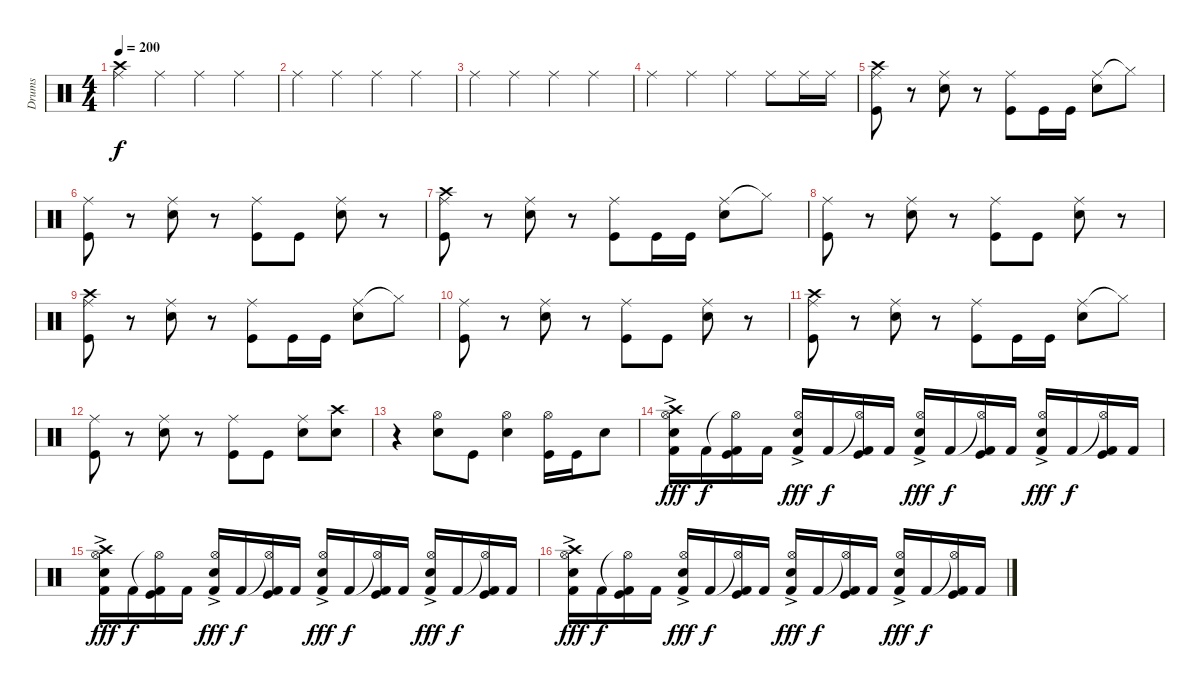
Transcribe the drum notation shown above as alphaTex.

\track ("Drums" "Drums") {instrument percussion}
\staff {score}
\articulation defaults
\ts (4 4)
\tempo 200
\clef neutral
\ks c
("Crash high (hit)" "Ride (middle)").4{dy f} "Ride (middle)".4 "Ride (middle)".4 "Ride (middle)".4 |
"Ride (middle)".4 "Ride (middle)".4 "Ride (middle)".4 "Ride (middle)".4 |
"Ride (middle)".4 "Ride (middle)".4 "Ride (middle)".4 "Ride (middle)".4 |
"Ride (middle)".4 "Ride (middle)".4 "Ride (middle)".4 "Ride (middle)".8 "Ride (middle)".16 "Ride (middle)".16 |
("Crash high (hit)" "Ride (middle)" "Kick (hit)").8 r.8 ("Ride (middle)" "Snare (hit) 2").8 r.8 ("Ride (middle)" "Kick (hit)").8 "Kick (hit)".16 "Kick (hit)".16 ("Ride (middle)" "Snare (hit) 2").8 "Hi-Hat (closed)"{t}.8 |
("Ride (middle)" "Kick (hit)").8 r.8 ("Ride (middle)" "Snare (hit) 2").8 r.8 ("Ride (middle)" "Kick (hit)").8 "Kick (hit)".8 ("Ride (middle)" "Snare (hit) 2").8 r.8 |
("Crash high (hit)" "Ride (middle)" "Kick (hit)").8 r.8 ("Ride (middle)" "Snare (hit) 2").8 r.8 ("Ride (middle)" "Kick (hit)").8 "Kick (hit)".16 "Kick (hit)".16 ("Ride (middle)" "Snare (hit) 2").8 "Hi-Hat (closed)"{t}.8 |
("Ride (middle)" "Kick (hit)").8 r.8 ("Ride (middle)" "Snare (hit) 2").8 r.8 ("Ride (middle)" "Kick (hit)").8 "Kick (hit)".8 ("Ride (middle)" "Snare (hit) 2").8 r.8 |
("Crash high (hit)" "Ride (middle)" "Kick (hit)").8 r.8 ("Ride (middle)" "Snare (hit) 2").8 r.8 ("Ride (middle)" "Kick (hit)").8 "Kick (hit)".16 "Kick (hit)".16 ("Ride (middle)" "Snare (hit) 2").8 "Hi-Hat (closed)"{t}.8 |
("Ride (middle)" "Kick (hit)").8 r.8 ("Ride (middle)" "Snare (hit) 2").8 r.8 ("Ride (middle)" "Kick (hit)").8 "Kick (hit)".8 ("Ride (middle)" "Snare (hit) 2").8 r.8 |
("Crash high (hit)" "Ride (middle)" "Kick (hit)").8 r.8 ("Ride (middle)" "Snare (hit) 2").8 r.8 ("Ride (middle)" "Kick (hit)").8 "Kick (hit)".16 "Kick (hit)".16 ("Ride (middle)" "Snare (hit) 2").8 "Hi-Hat (closed)"{t}.8 |
("Ride (middle)" "Kick (hit)").8 r.8 ("Ride (middle)" "Snare (hit) 2").8 r.8 ("Ride (middle)" "Kick (hit)").8 "Kick (hit)".8 ("Ride (middle)" "Snare (hit) 2").8 ("Crash high (hit)" "Snare (hit) 2").8 |
r.4 ("Hi-Hat (open)" "Snare (hit) 2").8 "Kick (hit)".8 ("Hi-Hat (open)" "Snare (hit) 2").4 ("Hi-Hat (open)" "Kick (hit)").16 "Kick (hit)".16 "Snare (hit) 2".8 |
("Crash high (hit)"{ac} "Hi-Hat (open)"{ac} "Snare (hit) 2" "Kick (hit) 2").16{dy fff} "Kick (hit) 2".16{dy f} ("Hi-Hat (open)"{t} "Kick (hit)" "Kick (hit) 2").16 "Kick (hit) 2".16 ("Hi-Hat (open)"{ac} "Snare (hit) 2" "Kick (hit) 2").16{dy fff} "Kick (hit) 2".16{dy f} ("Hi-Hat (open)"{t} "Kick (hit)" "Kick (hit) 2").16 "Kick (hit) 2".16 ("Hi-Hat (open)"{ac} "Snare (hit) 2" "Kick (hit) 2").16{dy fff} "Kick (hit) 2".16{dy f} ("Hi-Hat (open)"{t} "Kick (hit)" "Kick (hit) 2").16 "Kick (hit) 2".16 ("Hi-Hat (open)"{ac} "Snare (hit) 2" "Kick (hit) 2").16{dy fff} "Kick (hit) 2".16{dy f} ("Hi-Hat (open)"{t} "Kick (hit)" "Kick (hit) 2").16 "Kick (hit) 2".16 |
("Crash high (hit)"{ac} "Hi-Hat (open)"{ac} "Snare (hit) 2" "Kick (hit) 2").16{dy fff} "Kick (hit) 2".16{dy f} ("Hi-Hat (open)"{t} "Kick (hit)" "Kick (hit) 2").16 "Kick (hit) 2".16 ("Hi-Hat (open)"{ac} "Snare (hit) 2" "Kick (hit) 2").16{dy fff} "Kick (hit) 2".16{dy f} ("Hi-Hat (open)"{t} "Kick (hit)" "Kick (hit) 2").16 "Kick (hit) 2".16 ("Hi-Hat (open)"{ac} "Snare (hit) 2" "Kick (hit) 2").16{dy fff} "Kick (hit) 2".16{dy f} ("Hi-Hat (open)"{t} "Kick (hit)" "Kick (hit) 2").16 "Kick (hit) 2".16 ("Hi-Hat (open)"{ac} "Snare (hit) 2" "Kick (hit) 2").16{dy fff} "Kick (hit) 2".16{dy f} ("Hi-Hat (open)"{t} "Kick (hit)" "Kick (hit) 2").16 "Kick (hit) 2".16 |
("Crash high (hit)"{ac} "Hi-Hat (open)"{ac} "Snare (hit) 2" "Kick (hit) 2").16{dy fff} "Kick (hit) 2".16{dy f} ("Hi-Hat (open)"{t} "Kick (hit)" "Kick (hit) 2").16 "Kick (hit) 2".16 ("Hi-Hat (open)"{ac} "Snare (hit) 2" "Kick (hit) 2").16{dy fff} "Kick (hit) 2".16{dy f} ("Hi-Hat (open)"{t} "Kick (hit)" "Kick (hit) 2").16 "Kick (hit) 2".16 ("Hi-Hat (open)"{ac} "Snare (hit) 2" "Kick (hit) 2").16{dy fff} "Kick (hit) 2".16{dy f} ("Hi-Hat (open)"{t} "Kick (hit)" "Kick (hit) 2").16 "Kick (hit) 2".16 ("Hi-Hat (open)"{ac} "Snare (hit) 2" "Kick (hit) 2").16{dy fff} "Kick (hit) 2".16{dy f} ("Hi-Hat (open)"{t} "Kick (hit)" "Kick (hit) 2").16 "Kick (hit) 2".16
